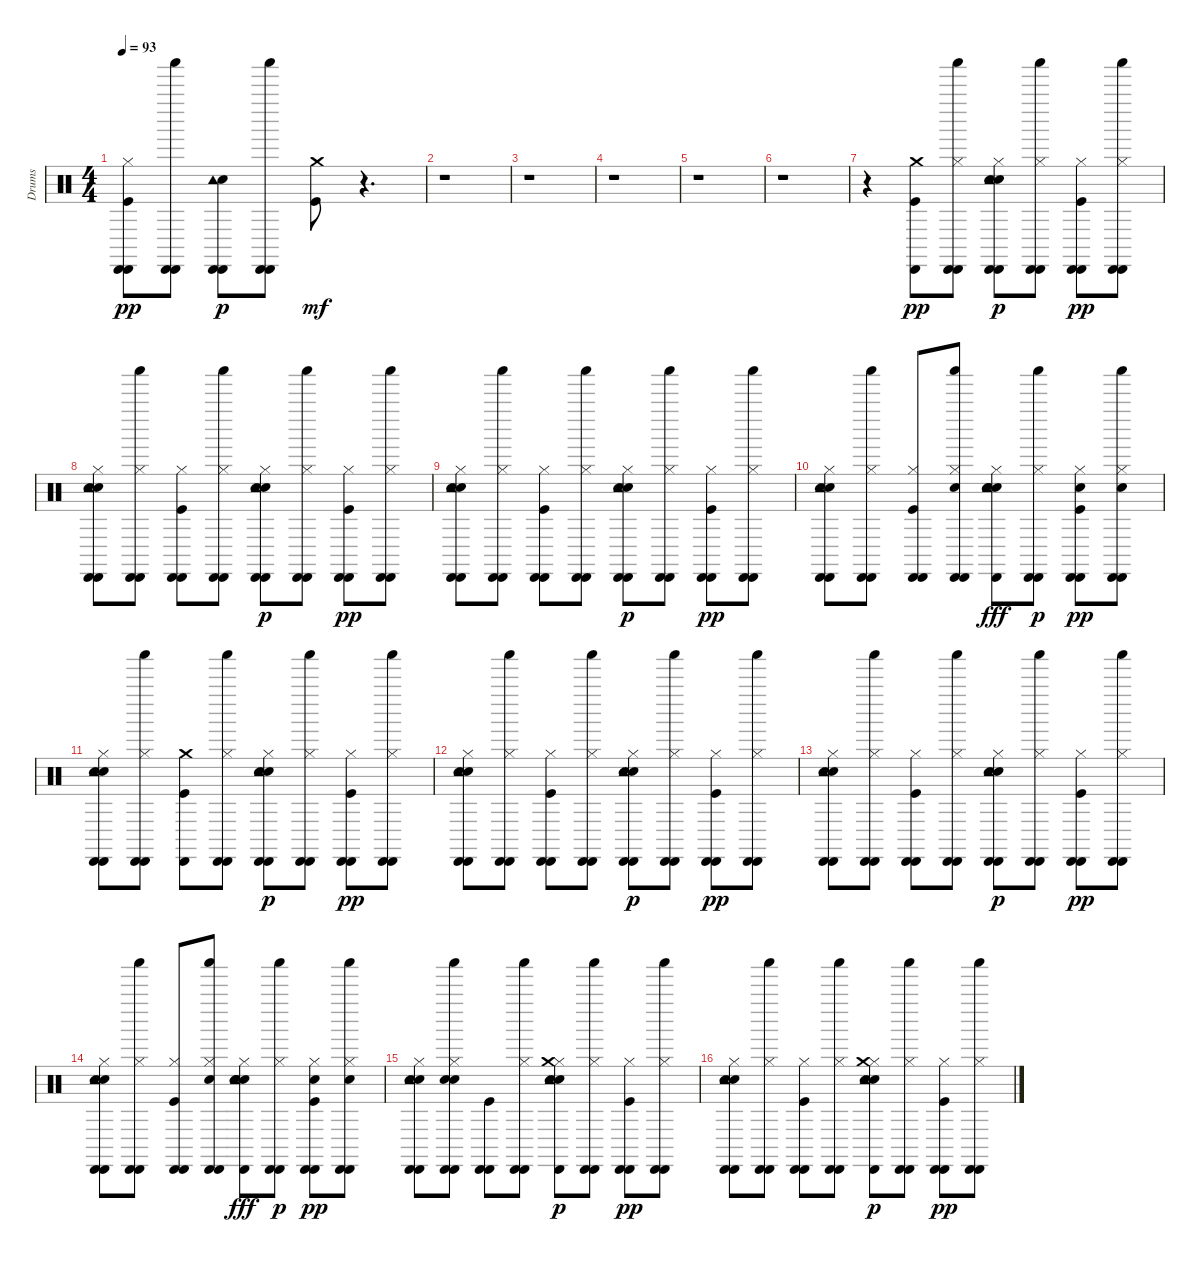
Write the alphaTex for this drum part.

\track ("Drums" "Drums") {instrument percussion}
\staff {score}
\articulation defaults
\ts (4 4)
\tempo 93
\clef neutral
\ks c
("Kick (hit)" "Hi-Hat (closed)" "Cabasa (hit)" "Cabasa (hit)").8{dy pp} ("Cabasa (hit)" "Shaker (hit)" "Cabasa (hit)").8 ("Hand Clap (hit)" "Tambourine (hit)" "Cabasa (hit)" "Cabasa (hit)").8{dy p} ("Cabasa (hit)" "Shaker (hit)" "Cabasa (hit)").8 ("Kick (hit)" "Crash medium (hit)").8{dy mf} r.4{d} |
r.1 |
r.1 |
r.1 |
r.1 |
r.1 |
r.4 ("Kick (hit)" "Crash medium (hit)" "Cabasa (hit)").8{dy pp} ("Hi-Hat (closed)" "Cabasa (hit)" "Shaker (hit)" "Cabasa (hit)").8 ("Hand Clap (hit)" "Electric Snare (hit)" "Hi-Hat (closed)" "Tambourine (hit)" "Cabasa (hit)" "Cabasa (hit)").8{dy p} ("Hi-Hat (closed)" "Cabasa (hit)" "Shaker (hit)" "Cabasa (hit)").8 ("Kick (hit)" "Hi-Hat (closed)" "Cabasa (hit)" "Cabasa (hit)").8{dy pp} ("Hi-Hat (closed)" "Cabasa (hit)" "Shaker (hit)" "Cabasa (hit)").8 |
("Hand Clap (hit)" "Electric Snare (hit)" "Hi-Hat (closed)" "Tambourine (hit)" "Cabasa (hit)" "Cabasa (hit)").8 ("Hi-Hat (closed)" "Cabasa (hit)" "Shaker (hit)" "Cabasa (hit)").8 ("Kick (hit)" "Hi-Hat (closed)" "Cabasa (hit)" "Cabasa (hit)").8 ("Hi-Hat (closed)" "Cabasa (hit)" "Shaker (hit)" "Cabasa (hit)").8 ("Hand Clap (hit)" "Electric Snare (hit)" "Hi-Hat (closed)" "Tambourine (hit)" "Cabasa (hit)" "Cabasa (hit)").8{dy p} ("Hi-Hat (closed)" "Cabasa (hit)" "Shaker (hit)" "Cabasa (hit)").8 ("Kick (hit)" "Hi-Hat (closed)" "Cabasa (hit)" "Cabasa (hit)").8{dy pp} ("Hi-Hat (closed)" "Cabasa (hit)" "Shaker (hit)" "Cabasa (hit)").8 |
("Hand Clap (hit)" "Electric Snare (hit)" "Hi-Hat (closed)" "Tambourine (hit)" "Cabasa (hit)" "Cabasa (hit)").8 ("Hi-Hat (closed)" "Cabasa (hit)" "Shaker (hit)" "Cabasa (hit)").8 ("Kick (hit)" "Hi-Hat (closed)" "Cabasa (hit)" "Cabasa (hit)").8 ("Hi-Hat (closed)" "Cabasa (hit)" "Shaker (hit)" "Cabasa (hit)").8 ("Hand Clap (hit)" "Electric Snare (hit)" "Hi-Hat (closed)" "Tambourine (hit)" "Cabasa (hit)" "Cabasa (hit)").8{dy p} ("Hi-Hat (closed)" "Cabasa (hit)" "Shaker (hit)" "Cabasa (hit)").8 ("Kick (hit)" "Hi-Hat (closed)" "Cabasa (hit)" "Cabasa (hit)").8{dy pp} ("Hi-Hat (closed)" "Cabasa (hit)" "Shaker (hit)" "Cabasa (hit)").8 |
("Hand Clap (hit)" "Electric Snare (hit)" "Hi-Hat (closed)" "Tambourine (hit)" "Cabasa (hit)" "Cabasa (hit)").8 ("Hi-Hat (closed)" "Cabasa (hit)" "Shaker (hit)" "Cabasa (hit)").8 ("Kick (hit)" "Hi-Hat (closed)" "Cabasa (hit)" "Cabasa (hit)").8 ("Electric Snare (hit)" "Hi-Hat (closed)" "Cabasa (hit)" "Shaker (hit)" "Cabasa (hit)").8 ("Hand Clap (hit)" "Electric Snare (hit)" "Hi-Hat (closed)" "Tambourine (hit)" "Cabasa (hit)" "Electric Snare (hit)").8{dy fff} ("Hi-Hat (closed)" "Cabasa (hit)" "Shaker (hit)" "Cabasa (hit)").8{dy p} ("Kick (hit)" "Electric Snare (hit)" "Hi-Hat (closed)" "Cabasa (hit)" "Cabasa (hit)").8{dy pp} ("Electric Snare (hit)" "Hi-Hat (closed)" "Cabasa (hit)" "Shaker (hit)" "Cabasa (hit)").8 |
("Hand Clap (hit)" "Electric Snare (hit)" "Hi-Hat (closed)" "Tambourine (hit)" "Cabasa (hit)" "Cabasa (hit)").8 ("Hi-Hat (closed)" "Cabasa (hit)" "Shaker (hit)" "Cabasa (hit)").8 ("Kick (hit)" "Crash medium (hit)" "Cabasa (hit)").8 ("Hi-Hat (closed)" "Cabasa (hit)" "Shaker (hit)" "Cabasa (hit)").8 ("Hand Clap (hit)" "Electric Snare (hit)" "Hi-Hat (closed)" "Tambourine (hit)" "Cabasa (hit)" "Cabasa (hit)").8{dy p} ("Hi-Hat (closed)" "Cabasa (hit)" "Shaker (hit)" "Cabasa (hit)").8 ("Kick (hit)" "Hi-Hat (closed)" "Cabasa (hit)" "Cabasa (hit)").8{dy pp} ("Hi-Hat (closed)" "Cabasa (hit)" "Shaker (hit)" "Cabasa (hit)").8 |
("Hand Clap (hit)" "Electric Snare (hit)" "Hi-Hat (closed)" "Tambourine (hit)" "Cabasa (hit)" "Cabasa (hit)").8 ("Hi-Hat (closed)" "Cabasa (hit)" "Shaker (hit)" "Cabasa (hit)").8 ("Kick (hit)" "Hi-Hat (closed)" "Cabasa (hit)" "Cabasa (hit)").8 ("Hi-Hat (closed)" "Cabasa (hit)" "Shaker (hit)" "Cabasa (hit)").8 ("Hand Clap (hit)" "Electric Snare (hit)" "Hi-Hat (closed)" "Tambourine (hit)" "Cabasa (hit)" "Cabasa (hit)").8{dy p} ("Hi-Hat (closed)" "Cabasa (hit)" "Shaker (hit)" "Cabasa (hit)").8 ("Kick (hit)" "Hi-Hat (closed)" "Cabasa (hit)" "Cabasa (hit)").8{dy pp} ("Hi-Hat (closed)" "Cabasa (hit)" "Shaker (hit)" "Cabasa (hit)").8 |
("Hand Clap (hit)" "Electric Snare (hit)" "Hi-Hat (closed)" "Tambourine (hit)" "Cabasa (hit)" "Cabasa (hit)").8 ("Hi-Hat (closed)" "Cabasa (hit)" "Shaker (hit)" "Cabasa (hit)").8 ("Kick (hit)" "Hi-Hat (closed)" "Cabasa (hit)" "Cabasa (hit)").8 ("Hi-Hat (closed)" "Cabasa (hit)" "Shaker (hit)" "Cabasa (hit)").8 ("Hand Clap (hit)" "Electric Snare (hit)" "Hi-Hat (closed)" "Tambourine (hit)" "Cabasa (hit)" "Cabasa (hit)").8{dy p} ("Hi-Hat (closed)" "Cabasa (hit)" "Shaker (hit)" "Cabasa (hit)").8 ("Kick (hit)" "Hi-Hat (closed)" "Cabasa (hit)" "Cabasa (hit)").8{dy pp} ("Hi-Hat (closed)" "Cabasa (hit)" "Shaker (hit)" "Cabasa (hit)").8 |
("Hand Clap (hit)" "Electric Snare (hit)" "Hi-Hat (closed)" "Tambourine (hit)" "Cabasa (hit)" "Cabasa (hit)").8 ("Hi-Hat (closed)" "Cabasa (hit)" "Shaker (hit)" "Cabasa (hit)").8 ("Kick (hit)" "Hi-Hat (closed)" "Cabasa (hit)" "Cabasa (hit)").8 ("Electric Snare (hit)" "Hi-Hat (closed)" "Cabasa (hit)" "Shaker (hit)" "Cabasa (hit)").8 ("Hand Clap (hit)" "Electric Snare (hit)" "Hi-Hat (closed)" "Tambourine (hit)" "Cabasa (hit)" "Electric Snare (hit)").8{dy fff} ("Hi-Hat (closed)" "Cabasa (hit)" "Shaker (hit)" "Cabasa (hit)").8{dy p} ("Kick (hit)" "Electric Snare (hit)" "Hi-Hat (closed)" "Cabasa (hit)" "Cabasa (hit)").8{dy pp} ("Electric Snare (hit)" "Hi-Hat (closed)" "Cabasa (hit)" "Shaker (hit)" "Cabasa (hit)").8 |
("Hand Clap (hit)" "Electric Snare (hit)" "Hi-Hat (closed)" "Tambourine (hit)" "Cabasa (hit)" "Cabasa (hit)").8 ("Electric Snare (hit)" "Hi-Hat (closed)" "Cabasa (hit)" "Shaker (hit)" "Electric Snare (hit)" "Cabasa (hit)").8 ("Kick (hit)" "Cabasa (hit)" "Cabasa (hit)").8 ("Hi-Hat (closed)" "Cabasa (hit)" "Shaker (hit)" "Cabasa (hit)").8 ("Hand Clap (hit)" "Electric Snare (hit)" "Hi-Hat (closed)" "Tambourine (hit)" "Crash medium (hit)" "Cabasa (hit)").8{dy p} ("Hi-Hat (closed)" "Cabasa (hit)" "Shaker (hit)" "Cabasa (hit)").8 ("Kick (hit)" "Hi-Hat (closed)" "Cabasa (hit)" "Cabasa (hit)").8{dy pp} ("Hi-Hat (closed)" "Cabasa (hit)" "Shaker (hit)" "Cabasa (hit)").8 |
("Hand Clap (hit)" "Electric Snare (hit)" "Hi-Hat (closed)" "Tambourine (hit)" "Cabasa (hit)" "Cabasa (hit)").8 ("Hi-Hat (closed)" "Cabasa (hit)" "Shaker (hit)" "Cabasa (hit)").8 ("Kick (hit)" "Hi-Hat (closed)" "Cabasa (hit)" "Cabasa (hit)").8 ("Hi-Hat (closed)" "Cabasa (hit)" "Shaker (hit)" "Cabasa (hit)").8 ("Hand Clap (hit)" "Electric Snare (hit)" "Hi-Hat (closed)" "Tambourine (hit)" "Crash medium (hit)" "Cabasa (hit)").8{dy p} ("Hi-Hat (closed)" "Cabasa (hit)" "Shaker (hit)" "Cabasa (hit)").8 ("Kick (hit)" "Hi-Hat (closed)" "Cabasa (hit)" "Cabasa (hit)").8{dy pp} ("Hi-Hat (closed)" "Cabasa (hit)" "Shaker (hit)" "Cabasa (hit)").8
